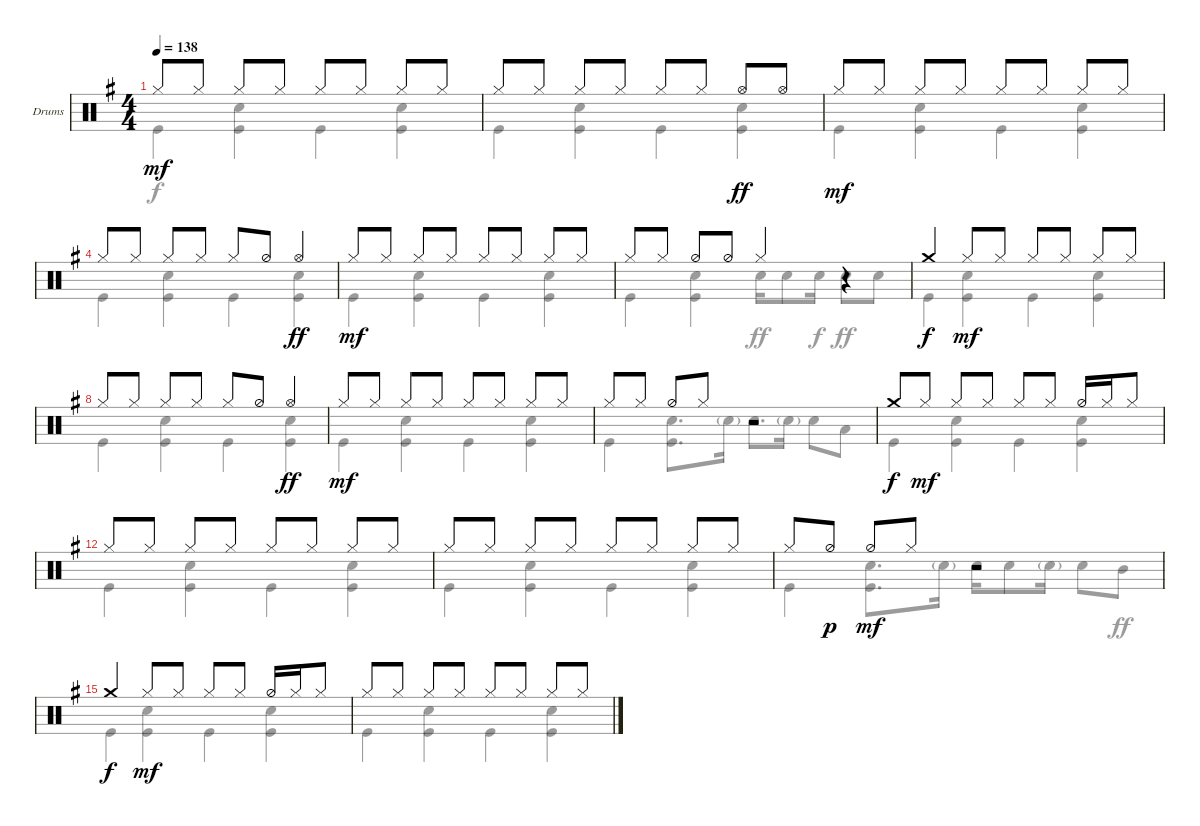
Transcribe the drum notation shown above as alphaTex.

\defaultSystemsLayout 4
\bracketExtendMode groupsimilarinstruments
\useSystemSignSeparator
\multiBarRest
\multiTrackTrackNamePolicy allsystems
\firstSystemTrackNameMode fullname
\firstSystemTrackNameOrientation horizontal
\otherSystemsTrackNameOrientation horizontal
\defaultBarNumberDisplay FirstOfSystem
\track ("Drums" "Dr.") {multiBarRest instrument percussion}
\staff {score}
\articulation defaults
\voice
\ts (4 4)
\tempo 138
\clef neutral
\ks g "Hi-Hat (closed)".8{dy mf} "Hi-Hat (closed)".8 "Hi-Hat (closed)".8 "Hi-Hat (closed)".8 "Hi-Hat (closed)".8 "Hi-Hat (closed)".8 "Hi-Hat (closed)".8 "Hi-Hat (closed)".8
|
"Hi-Hat (closed)".8 "Hi-Hat (closed)".8 "Hi-Hat (closed)".8 "Hi-Hat (closed)".8 "Hi-Hat (closed)".8 "Hi-Hat (closed)".8 "Hi-Hat (open)".8{dy ff} "Hi-Hat (open)".8 |
"Hi-Hat (closed)".8{dy mf} "Hi-Hat (closed)".8 "Hi-Hat (closed)".8 "Hi-Hat (closed)".8 "Hi-Hat (closed)".8 "Hi-Hat (closed)".8 "Hi-Hat (closed)".8 "Hi-Hat (closed)".8 |
"Hi-Hat (closed)".8 "Hi-Hat (closed)".8 "Hi-Hat (closed)".8 "Hi-Hat (closed)".8 "Hi-Hat (closed)".8 "Hi-Hat (half)".8 "Hi-Hat (open)".4{dy ff} |
"Hi-Hat (closed)".8{dy mf} "Hi-Hat (closed)".8 "Hi-Hat (closed)".8 "Hi-Hat (closed)".8 "Hi-Hat (closed)".8 "Hi-Hat (closed)".8 "Hi-Hat (closed)".8 "Hi-Hat (closed)".8 |
"Hi-Hat (closed)".8 "Hi-Hat (closed)".8 "Hi-Hat (half)".8 "Hi-Hat (half)".8 "Hi-Hat (closed)".4 r.4 |
"Crash medium (hit)".4{dy f} "Hi-Hat (closed)".8{dy mf} "Hi-Hat (closed)".8 "Hi-Hat (closed)".8 "Hi-Hat (closed)".8 "Hi-Hat (closed)".8 "Hi-Hat (closed)".8 |
"Hi-Hat (closed)".8 "Hi-Hat (closed)".8 "Hi-Hat (closed)".8 "Hi-Hat (closed)".8 "Hi-Hat (closed)".8 "Hi-Hat (half)".8 "Hi-Hat (open)".4{dy ff} |
"Hi-Hat (closed)".8{dy mf} "Hi-Hat (closed)".8 "Hi-Hat (closed)".8 "Hi-Hat (closed)".8 "Hi-Hat (closed)".8 "Hi-Hat (closed)".8 "Hi-Hat (closed)".8 "Hi-Hat (closed)".8 |
"Hi-Hat (closed)".8 "Hi-Hat (closed)".8 "Hi-Hat (half)".8 "Hi-Hat (closed)".8 r.2 |
"Crash medium (hit)".8{dy f} "Hi-Hat (closed)".8{dy mf} "Hi-Hat (closed)".8 "Hi-Hat (closed)".8 "Hi-Hat (closed)".8 "Hi-Hat (closed)".8 "Hi-Hat (half)".16 "Hi-Hat (closed)".16 "Hi-Hat (closed)".8 |
"Hi-Hat (closed)".8 "Hi-Hat (closed)".8 "Hi-Hat (closed)".8 "Hi-Hat (closed)".8 "Hi-Hat (closed)".8 "Hi-Hat (closed)".8 "Hi-Hat (closed)".8 "Hi-Hat (closed)".8 |
"Hi-Hat (closed)".8 "Hi-Hat (closed)".8 "Hi-Hat (closed)".8 "Hi-Hat (closed)".8 "Hi-Hat (closed)".8 "Hi-Hat (closed)".8 "Hi-Hat (closed)".8 "Hi-Hat (closed)".8 |
"Hi-Hat (closed)".8 "Hi-Hat (half)".8{dy p} "Hi-Hat (half)".8{dy mf} "Hi-Hat (closed)".8 r.2 |
"Crash medium (hit)".4{dy f} "Hi-Hat (closed)".8{dy mf} "Hi-Hat (closed)".8 "Hi-Hat (closed)".8 "Hi-Hat (closed)".8 "Hi-Hat (half)".16 "Hi-Hat (closed)".16 "Hi-Hat (closed)".8 |
"Hi-Hat (closed)".8 "Hi-Hat (closed)".8 "Hi-Hat (closed)".8 "Hi-Hat (closed)".8 "Hi-Hat (closed)".8 "Hi-Hat (closed)".8 "Hi-Hat (closed)".8 "Hi-Hat (closed)".8
\voice
\clef neutral
\ottava regular
\simile none
\ks g "Kick (hit)".4{dy f}
("Kick (hit)" "Snare (hit) 2").4 "Kick (hit)".4 ("Kick (hit)" "Snare (hit) 2").4 |
"Kick (hit)".4 ("Kick (hit)" "Snare (hit) 2").4 "Kick (hit)".4 ("Kick (hit)" "Snare (hit) 2").4 |
"Kick (hit)".4 ("Kick (hit)" "Snare (hit) 2").4 "Kick (hit)".4 ("Kick (hit)" "Snare (hit) 2").4 |
"Kick (hit)".4 ("Kick (hit)" "Snare (hit) 2").4 "Kick (hit)".4 ("Kick (hit)" "Snare (hit) 2").4 |
"Kick (hit)".4 ("Kick (hit)" "Snare (hit) 2").4 "Kick (hit)".4 ("Kick (hit)" "Snare (hit) 2").4 |
"Kick (hit)".4 ("Kick (hit)" "Snare (hit) 2").4 "Snare (hit) 2".16{dy ff} "Snare (hit) 2".8 "Snare (hit) 2".16{dy f} "Snare (hit) 2".8{dy ff} "Snare (hit) 2".8 |
"Kick (hit)".4{dy f} ("Kick (hit)" "Snare (hit) 2").4 "Kick (hit)".4 ("Kick (hit)" "Snare (hit) 2").4 |
"Kick (hit)".4 ("Kick (hit)" "Snare (hit) 2").4 "Kick (hit)".4 ("Kick (hit)" "Snare (hit) 2").4 |
"Kick (hit)".4 ("Kick (hit)" "Snare (hit) 2").4 "Kick (hit)".4 ("Kick (hit)" "Snare (hit) 2").4 |
"Kick (hit)".4 ("Kick (hit)" "Snare (hit) 2").8{d} "Snare (hit) 2"{g}.16 "Snare (hit) 2".8{d} "Snare (hit) 2"{g}.16 "Snare (hit) 2".8 "Low Tom (hit)".8 |
"Kick (hit)".4 ("Kick (hit)" "Snare (hit) 2").4 "Kick (hit)".4 ("Kick (hit)" "Snare (hit) 2").4 |
"Kick (hit)".4 ("Kick (hit)" "Snare (hit) 2").4 "Kick (hit)".4 ("Kick (hit)" "Snare (hit) 2").4 |
"Kick (hit)".4 ("Kick (hit)" "Snare (hit) 2").4 "Kick (hit)".4 ("Kick (hit)" "Snare (hit) 2").4 |
"Kick (hit)".4 ("Kick (hit)" "Snare (hit) 2").8{d} "Snare (hit) 2"{g}.16 "Snare (hit) 2".16 "Snare (hit) 2".8 "Snare (hit) 2"{g}.16 "Snare (hit) 2".8 "Mid Tom (hit)".8{dy ff} |
"Kick (hit)".4{dy f} ("Kick (hit)" "Snare (hit) 2").4 "Kick (hit)".4 ("Kick (hit)" "Snare (hit) 2").4 |
"Kick (hit)".4 ("Kick (hit)" "Snare (hit) 2").4 "Kick (hit)".4 ("Kick (hit)" "Snare (hit) 2").4
